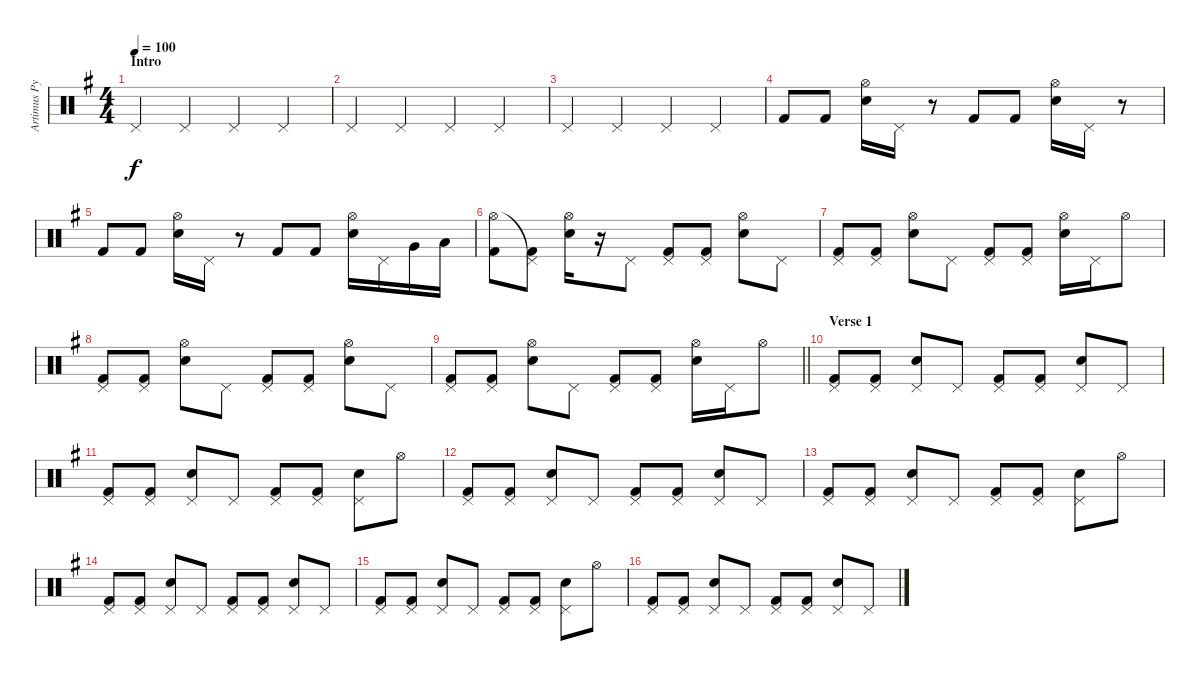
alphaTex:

\track ("Artimus Pyle" "Artimus Py") {instrument percussion}
\staff {score}
\articulation defaults
\ts (4 4)
\section ("" "Intro")
\tempo 100
\clef neutral
\ks g "Pedal Hi-Hat (hit)".4{dy f} "Pedal Hi-Hat (hit)".4 "Pedal Hi-Hat (hit)".4 "Pedal Hi-Hat (hit)".4
|
"Pedal Hi-Hat (hit)".4 "Pedal Hi-Hat (hit)".4 "Pedal Hi-Hat (hit)".4 "Pedal Hi-Hat (hit)".4 |
"Pedal Hi-Hat (hit)".4 "Pedal Hi-Hat (hit)".4 "Pedal Hi-Hat (hit)".4 "Pedal Hi-Hat (hit)".4 |
"Kick (hit) 2".8 "Kick (hit) 2".8 ("Snare (hit) 2" "Hi-Hat (open)").16 "Pedal Hi-Hat (hit)".16 r.8 "Kick (hit) 2".8 "Kick (hit) 2".8 ("Snare (hit) 2" "Hi-Hat (open)").16 "Pedal Hi-Hat (hit)".16 r.8 |
"Kick (hit) 2".8 "Kick (hit) 2".8 ("Snare (hit) 2" "Hi-Hat (open)").16 "Pedal Hi-Hat (hit)".16 r.8 "Kick (hit) 2".8 "Kick (hit) 2".8 ("Snare (hit) 2" "Hi-Hat (open)").16 "Pedal Hi-Hat (hit)".16 "Very Low Tom (hit)".16 "Low Floor Tom (hit)".16 |
("Hi-Hat (open)" "Kick (hit) 2").8 ("Pedal Hi-Hat (hit)"{t} "Kick (hit) 2").8 ("Snare (hit) 2" "Hi-Hat (open)").16 r.16 "Pedal Hi-Hat (hit)".8 ("Pedal Hi-Hat (hit)" "Kick (hit) 2").8 ("Pedal Hi-Hat (hit)" "Kick (hit) 2").8 ("Snare (hit) 2" "Hi-Hat (open)").8 "Pedal Hi-Hat (hit)".8 |
("Pedal Hi-Hat (hit)" "Kick (hit) 2").8 ("Pedal Hi-Hat (hit)" "Kick (hit) 2").8 ("Snare (hit) 2" "Hi-Hat (open)").8 "Pedal Hi-Hat (hit)".8 ("Pedal Hi-Hat (hit)" "Kick (hit) 2").8 ("Pedal Hi-Hat (hit)" "Kick (hit) 2").8 ("Snare (hit) 2" "Hi-Hat (open)").16 "Pedal Hi-Hat (hit)".16 "Hi-Hat (open)".8 |
("Pedal Hi-Hat (hit)" "Kick (hit) 2").8 ("Pedal Hi-Hat (hit)" "Kick (hit) 2").8 ("Snare (hit) 2" "Hi-Hat (open)").8 "Pedal Hi-Hat (hit)".8 ("Pedal Hi-Hat (hit)" "Kick (hit) 2").8 ("Pedal Hi-Hat (hit)" "Kick (hit) 2").8 ("Snare (hit) 2" "Hi-Hat (open)").8 "Pedal Hi-Hat (hit)".8 |
\barLineRight lightlight
("Pedal Hi-Hat (hit)" "Kick (hit) 2").8 ("Pedal Hi-Hat (hit)" "Kick (hit) 2").8 ("Snare (hit) 2" "Hi-Hat (open)").8 "Pedal Hi-Hat (hit)".8 ("Pedal Hi-Hat (hit)" "Kick (hit) 2").8 ("Pedal Hi-Hat (hit)" "Kick (hit) 2").8 ("Snare (hit) 2" "Hi-Hat (open)").16 "Pedal Hi-Hat (hit)".16 "Hi-Hat (open)".8 |
\section ("" "Verse 1")
("Pedal Hi-Hat (hit)" "Kick (hit) 2").8 ("Pedal Hi-Hat (hit)" "Kick (hit) 2").8 ("Snare (hit) 2" "Pedal Hi-Hat (hit)").8 "Pedal Hi-Hat (hit)".8 ("Pedal Hi-Hat (hit)" "Kick (hit) 2").8 ("Pedal Hi-Hat (hit)" "Kick (hit) 2").8 ("Snare (hit) 2" "Pedal Hi-Hat (hit)").8 "Pedal Hi-Hat (hit)".8 |
("Pedal Hi-Hat (hit)" "Kick (hit) 2").8 ("Pedal Hi-Hat (hit)" "Kick (hit) 2").8 ("Snare (hit) 2" "Pedal Hi-Hat (hit)").8 "Pedal Hi-Hat (hit)".8 ("Pedal Hi-Hat (hit)" "Kick (hit) 2").8 ("Pedal Hi-Hat (hit)" "Kick (hit) 2").8 ("Snare (hit) 2" "Pedal Hi-Hat (hit)").8 "Hi-Hat (open)".8 |
("Pedal Hi-Hat (hit)" "Kick (hit) 2").8 ("Pedal Hi-Hat (hit)" "Kick (hit) 2").8 ("Snare (hit) 2" "Pedal Hi-Hat (hit)").8 "Pedal Hi-Hat (hit)".8 ("Pedal Hi-Hat (hit)" "Kick (hit) 2").8 ("Pedal Hi-Hat (hit)" "Kick (hit) 2").8 ("Snare (hit) 2" "Pedal Hi-Hat (hit)").8 "Pedal Hi-Hat (hit)".8 |
("Pedal Hi-Hat (hit)" "Kick (hit) 2").8 ("Pedal Hi-Hat (hit)" "Kick (hit) 2").8 ("Snare (hit) 2" "Pedal Hi-Hat (hit)").8 "Pedal Hi-Hat (hit)".8 ("Pedal Hi-Hat (hit)" "Kick (hit) 2").8 ("Pedal Hi-Hat (hit)" "Kick (hit) 2").8 ("Snare (hit) 2" "Pedal Hi-Hat (hit)").8 "Hi-Hat (open)".8 |
("Pedal Hi-Hat (hit)" "Kick (hit) 2").8 ("Pedal Hi-Hat (hit)" "Kick (hit) 2").8 ("Snare (hit) 2" "Pedal Hi-Hat (hit)").8 "Pedal Hi-Hat (hit)".8 ("Pedal Hi-Hat (hit)" "Kick (hit) 2").8 ("Pedal Hi-Hat (hit)" "Kick (hit) 2").8 ("Snare (hit) 2" "Pedal Hi-Hat (hit)").8 "Pedal Hi-Hat (hit)".8 |
("Pedal Hi-Hat (hit)" "Kick (hit) 2").8 ("Pedal Hi-Hat (hit)" "Kick (hit) 2").8 ("Snare (hit) 2" "Pedal Hi-Hat (hit)").8 "Pedal Hi-Hat (hit)".8 ("Pedal Hi-Hat (hit)" "Kick (hit) 2").8 ("Pedal Hi-Hat (hit)" "Kick (hit) 2").8 ("Snare (hit) 2" "Pedal Hi-Hat (hit)").8 "Hi-Hat (open)".8 |
("Pedal Hi-Hat (hit)" "Kick (hit) 2").8 ("Pedal Hi-Hat (hit)" "Kick (hit) 2").8 ("Snare (hit) 2" "Pedal Hi-Hat (hit)").8 "Pedal Hi-Hat (hit)".8 ("Pedal Hi-Hat (hit)" "Kick (hit) 2").8 ("Pedal Hi-Hat (hit)" "Kick (hit) 2").8 ("Snare (hit) 2" "Pedal Hi-Hat (hit)").8 "Pedal Hi-Hat (hit)".8
